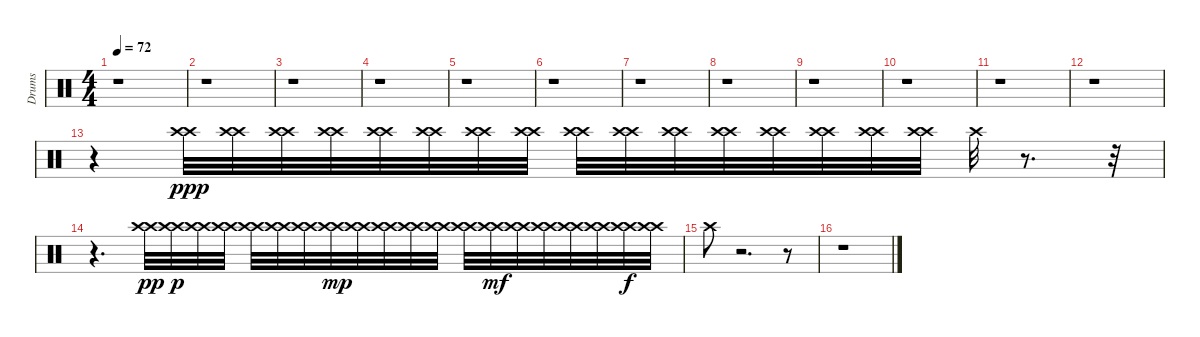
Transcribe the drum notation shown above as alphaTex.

\track ("Drums" "Drums") {instrument percussion}
\staff {score}
\articulation defaults
\ts (4 4)
\tempo 72
\clef neutral
\ks c
r.1{dy ppp} |
r.1 |
r.1 |
r.1 |
r.1 |
r.1 |
r.1 |
r.1 |
r.1 |
r.1 |
r.1 |
r.1 |
r.4 ("Crash high (hit)" "Crash high (hit)").32 ("Crash high (hit)" "Crash high (hit)").32 ("Crash high (hit)" "Crash high (hit)").32 ("Crash high (hit)" "Crash high (hit)").32 ("Crash high (hit)" "Crash high (hit)").32 ("Crash high (hit)" "Crash high (hit)").32 ("Crash high (hit)" "Crash high (hit)").32 ("Crash high (hit)" "Crash high (hit)").32 ("Crash high (hit)" "Crash high (hit)").32 ("Crash high (hit)" "Crash high (hit)").32 ("Crash high (hit)" "Crash high (hit)").32 ("Crash high (hit)" "Crash high (hit)").32 ("Crash high (hit)" "Crash high (hit)").32 ("Crash high (hit)" "Crash high (hit)").32 ("Crash high (hit)" "Crash high (hit)").32 ("Crash high (hit)" "Crash high (hit)").32 "Crash high (hit)".32 r.8{d} r.32 |
r.4{d} ("Crash high (hit)" "Crash high (hit)").32{dy pp} ("Crash high (hit)" "Crash high (hit)").32{dy p} ("Crash high (hit)" "Crash high (hit)").32 ("Crash high (hit)" "Crash high (hit)").32 ("Crash high (hit)" "Crash high (hit)").32 ("Crash high (hit)" "Crash high (hit)").32 ("Crash high (hit)" "Crash high (hit)").32 ("Crash high (hit)" "Crash high (hit)").32{dy mp} ("Crash high (hit)" "Crash high (hit)").32 ("Crash high (hit)" "Crash high (hit)").32 ("Crash high (hit)" "Crash high (hit)").32 ("Crash high (hit)" "Crash high (hit)").32 ("Crash high (hit)" "Crash high (hit)").32 ("Crash high (hit)" "Crash high (hit)").32{dy mf} ("Crash high (hit)" "Crash high (hit)").32 ("Crash high (hit)" "Crash high (hit)").32 ("Crash high (hit)" "Crash high (hit)").32 ("Crash high (hit)" "Crash high (hit)").32 ("Crash high (hit)" "Crash high (hit)").32{dy f} ("Crash high (hit)" "Crash high (hit)").32 |
"Crash high (hit)".8 r.2{d} r.8 |
r.1
